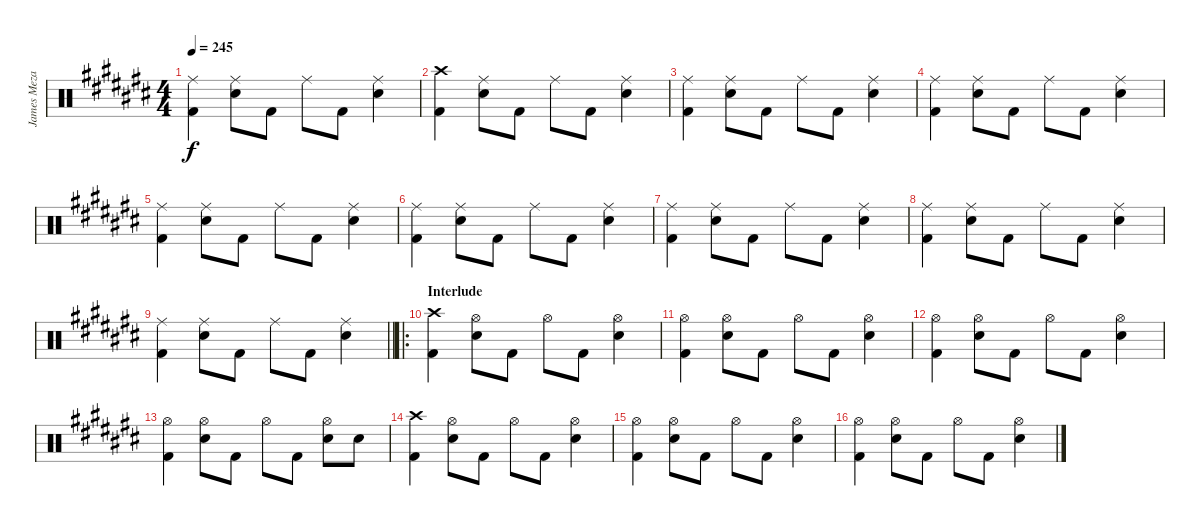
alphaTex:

\track ("James Meza" "James Meza") {instrument percussion}
\staff {score}
\articulation defaults
\ts (4 4)
\tempo 245
\clef neutral
\ks c#
("Ride (middle)" "Kick (hit) 2").4{dy f} ("Ride (middle)" "Snare (hit) 2").8 "Kick (hit) 2".8 "Ride (middle)".8 "Kick (hit) 2".8 ("Ride (middle)" "Snare (hit) 2").4 |
("Crash high (hit)" "Kick (hit) 2").4 ("Ride (middle)" "Snare (hit) 2").8 "Kick (hit) 2".8 "Ride (middle)".8 "Kick (hit) 2".8 ("Ride (middle)" "Snare (hit) 2").4 |
("Ride (middle)" "Kick (hit) 2").4 ("Ride (middle)" "Snare (hit) 2").8 "Kick (hit) 2".8 "Ride (middle)".8 "Kick (hit) 2".8 ("Ride (middle)" "Snare (hit) 2").4 |
("Ride (middle)" "Kick (hit) 2").4 ("Ride (middle)" "Snare (hit) 2").8 "Kick (hit) 2".8 "Ride (middle)".8 "Kick (hit) 2".8 ("Ride (middle)" "Snare (hit) 2").4 |
("Ride (middle)" "Kick (hit) 2").4 ("Ride (middle)" "Snare (hit) 2").8 "Kick (hit) 2".8 "Ride (middle)".8 "Kick (hit) 2".8 ("Ride (middle)" "Snare (hit) 2").4 |
("Ride (middle)" "Kick (hit) 2").4 ("Ride (middle)" "Snare (hit) 2").8 "Kick (hit) 2".8 "Ride (middle)".8 "Kick (hit) 2".8 ("Ride (middle)" "Snare (hit) 2").4 |
("Ride (middle)" "Kick (hit) 2").4 ("Ride (middle)" "Snare (hit) 2").8 "Kick (hit) 2".8 "Ride (middle)".8 "Kick (hit) 2".8 ("Ride (middle)" "Snare (hit) 2").4 |
("Ride (middle)" "Kick (hit) 2").4 ("Ride (middle)" "Snare (hit) 2").8 "Kick (hit) 2".8 "Ride (middle)".8 "Kick (hit) 2".8 ("Ride (middle)" "Snare (hit) 2").4 |
\barLineRight lightlight
("Ride (middle)" "Kick (hit) 2").4 ("Ride (middle)" "Snare (hit) 2").8 "Kick (hit) 2".8 "Ride (middle)".8 "Kick (hit) 2".8 ("Ride (middle)" "Snare (hit) 2").4 |
\ro
\section ("" "Interlude")
("Crash high (hit)" "Kick (hit) 2").4 ("Hi-Hat (open)" "Snare (hit) 2").8 "Kick (hit) 2".8 "Hi-Hat (open)".8 "Kick (hit) 2".8 ("Hi-Hat (open)" "Snare (hit) 2").4 |
("Hi-Hat (open)" "Kick (hit) 2").4 ("Hi-Hat (open)" "Snare (hit) 2").8 "Kick (hit) 2".8 "Hi-Hat (open)".8 "Kick (hit) 2".8 ("Hi-Hat (open)" "Snare (hit) 2").4 |
("Hi-Hat (open)" "Kick (hit) 2").4 ("Hi-Hat (open)" "Snare (hit) 2").8 "Kick (hit) 2".8 "Hi-Hat (open)".8 "Kick (hit) 2".8 ("Hi-Hat (open)" "Snare (hit) 2").4 |
("Hi-Hat (open)" "Kick (hit) 2").4 ("Hi-Hat (open)" "Snare (hit) 2").8 "Kick (hit) 2".8 "Hi-Hat (open)".8 "Kick (hit) 2".8 ("Hi-Hat (open)" "Snare (hit) 2").8 "Snare (hit) 2".8 |
("Crash high (hit)" "Kick (hit) 2").4 ("Hi-Hat (open)" "Snare (hit) 2").8 "Kick (hit) 2".8 "Hi-Hat (open)".8 "Kick (hit) 2".8 ("Hi-Hat (open)" "Snare (hit) 2").4 |
("Hi-Hat (open)" "Kick (hit) 2").4 ("Hi-Hat (open)" "Snare (hit) 2").8 "Kick (hit) 2".8 "Hi-Hat (open)".8 "Kick (hit) 2".8 ("Hi-Hat (open)" "Snare (hit) 2").4 |
("Hi-Hat (open)" "Kick (hit) 2").4 ("Hi-Hat (open)" "Snare (hit) 2").8 "Kick (hit) 2".8 "Hi-Hat (open)".8 "Kick (hit) 2".8 ("Hi-Hat (open)" "Snare (hit) 2").4
